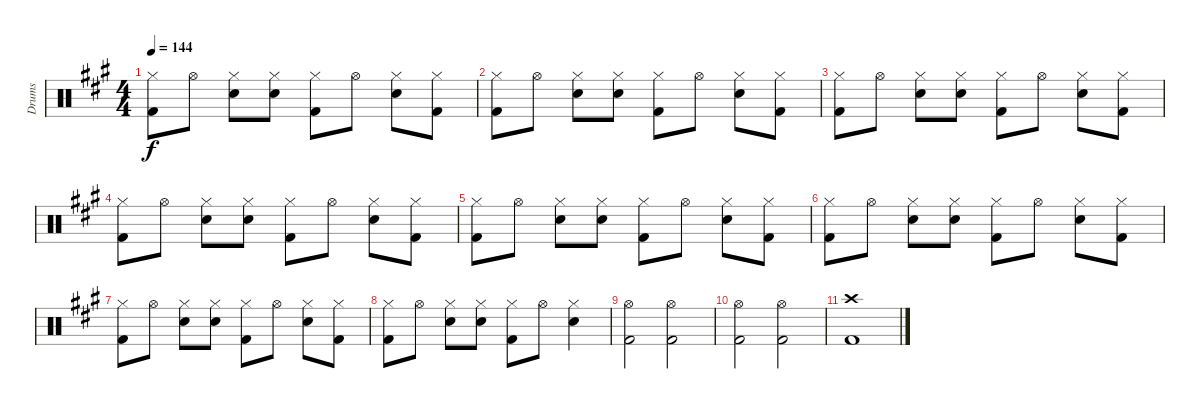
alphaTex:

\track ("Drums" "Drums") {instrument percussion}
\staff {score}
\articulation defaults
\ts (4 4)
\tempo 144
\clef neutral
\ks a
("Hi-Hat (closed)" "Kick (hit) 2").8{dy f} "Hi-Hat (open)".8 ("Hi-Hat (closed)" "Snare (hit) 2").8 ("Hi-Hat (closed)" "Snare (hit) 2").8 ("Hi-Hat (closed)" "Kick (hit) 2").8 "Hi-Hat (open)".8 ("Hi-Hat (closed)" "Snare (hit) 2").8 ("Hi-Hat (closed)" "Kick (hit) 2").8 |
("Hi-Hat (closed)" "Kick (hit) 2").8 "Hi-Hat (open)".8 ("Hi-Hat (closed)" "Snare (hit) 2").8 ("Hi-Hat (closed)" "Snare (hit) 2").8 ("Hi-Hat (closed)" "Kick (hit) 2").8 "Hi-Hat (open)".8 ("Hi-Hat (closed)" "Snare (hit) 2").8 ("Hi-Hat (closed)" "Kick (hit) 2").8 |
("Hi-Hat (closed)" "Kick (hit) 2").8 "Hi-Hat (open)".8 ("Hi-Hat (closed)" "Snare (hit) 2").8 ("Hi-Hat (closed)" "Snare (hit) 2").8 ("Hi-Hat (closed)" "Kick (hit) 2").8 "Hi-Hat (open)".8 ("Hi-Hat (closed)" "Snare (hit) 2").8 ("Hi-Hat (closed)" "Kick (hit) 2").8 |
("Hi-Hat (closed)" "Kick (hit) 2").8 "Hi-Hat (open)".8 ("Hi-Hat (closed)" "Snare (hit) 2").8 ("Hi-Hat (closed)" "Snare (hit) 2").8 ("Hi-Hat (closed)" "Kick (hit) 2").8 "Hi-Hat (open)".8 ("Hi-Hat (closed)" "Snare (hit) 2").8 ("Hi-Hat (closed)" "Kick (hit) 2").8 |
("Hi-Hat (closed)" "Kick (hit) 2").8 "Hi-Hat (open)".8 ("Hi-Hat (closed)" "Snare (hit) 2").8 ("Hi-Hat (closed)" "Snare (hit) 2").8 ("Hi-Hat (closed)" "Kick (hit) 2").8 "Hi-Hat (open)".8 ("Hi-Hat (closed)" "Snare (hit) 2").8 ("Hi-Hat (closed)" "Kick (hit) 2").8 |
("Hi-Hat (closed)" "Kick (hit) 2").8 "Hi-Hat (open)".8 ("Hi-Hat (closed)" "Snare (hit) 2").8 ("Hi-Hat (closed)" "Snare (hit) 2").8 ("Hi-Hat (closed)" "Kick (hit) 2").8 "Hi-Hat (open)".8 ("Hi-Hat (closed)" "Snare (hit) 2").8 ("Hi-Hat (closed)" "Kick (hit) 2").8 |
("Hi-Hat (closed)" "Kick (hit) 2").8 "Hi-Hat (open)".8 ("Hi-Hat (closed)" "Snare (hit) 2").8 ("Hi-Hat (closed)" "Snare (hit) 2").8 ("Hi-Hat (closed)" "Kick (hit) 2").8 "Hi-Hat (open)".8 ("Hi-Hat (closed)" "Snare (hit) 2").8 ("Hi-Hat (closed)" "Kick (hit) 2").8 |
("Hi-Hat (closed)" "Kick (hit) 2").8 "Hi-Hat (open)".8 ("Hi-Hat (closed)" "Snare (hit) 2").8 ("Hi-Hat (closed)" "Snare (hit) 2").8 ("Hi-Hat (closed)" "Kick (hit) 2").8 "Hi-Hat (open)".8 ("Hi-Hat (closed)" "Snare (hit) 2").4 |
("Hi-Hat (open)" "Kick (hit) 2").2 ("Hi-Hat (open)" "Kick (hit) 2").2 |
("Hi-Hat (open)" "Kick (hit) 2").2 ("Hi-Hat (open)" "Kick (hit) 2").2 |
("Crash high (hit)" "Kick (hit) 2").1
